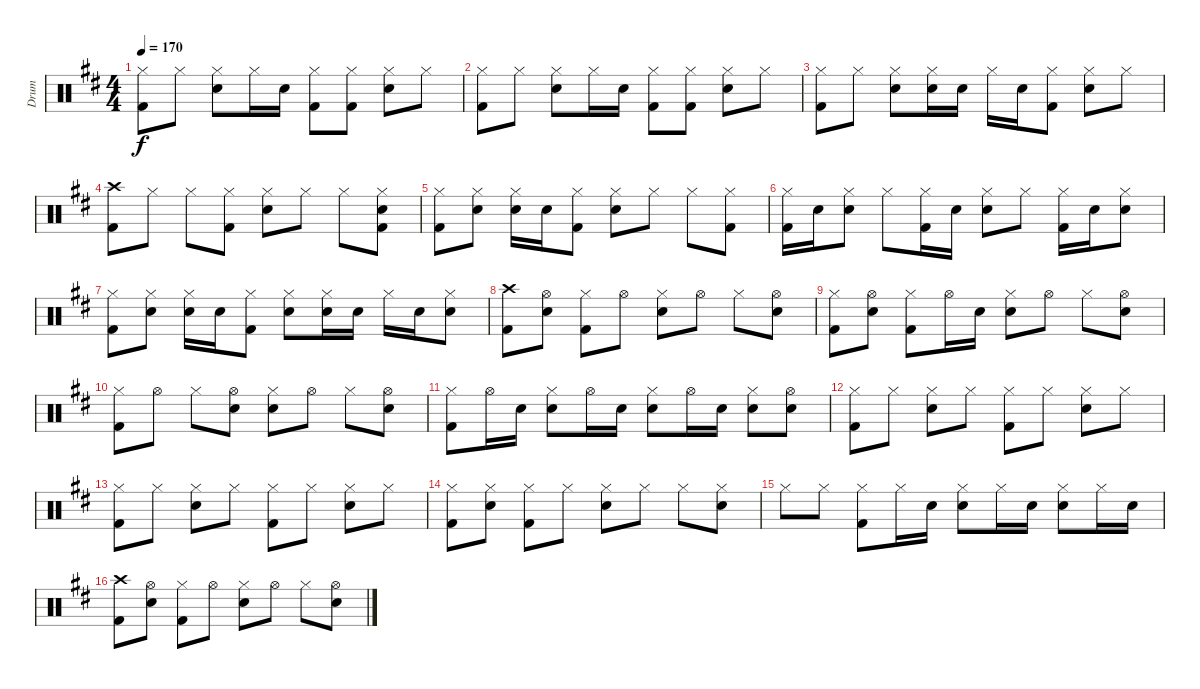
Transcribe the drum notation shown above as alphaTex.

\track ("Drum" "Drum") {instrument percussion}
\staff {score}
\articulation defaults
\ts (4 4)
\tempo 170
\clef neutral
\ks d
("Hi-Hat (closed)" "Kick (hit) 2").8{dy f} "Hi-Hat (closed)".8 ("Hi-Hat (closed)" "Electric Snare (hit)").8 "Hi-Hat (closed)".16 "Electric Snare (hit)".16 ("Hi-Hat (closed)" "Kick (hit) 2").8 ("Hi-Hat (closed)" "Kick (hit) 2").8 ("Hi-Hat (closed)" "Electric Snare (hit)").8 "Hi-Hat (closed)".8 |
("Hi-Hat (closed)" "Kick (hit) 2").8 "Hi-Hat (closed)".8 ("Hi-Hat (closed)" "Electric Snare (hit)").8 "Hi-Hat (closed)".16 "Electric Snare (hit)".16 ("Hi-Hat (closed)" "Kick (hit) 2").8 ("Hi-Hat (closed)" "Kick (hit) 2").8 ("Hi-Hat (closed)" "Electric Snare (hit)").8 "Hi-Hat (closed)".8 |
("Hi-Hat (closed)" "Kick (hit) 2").8 "Hi-Hat (closed)".8 ("Hi-Hat (closed)" "Electric Snare (hit)").8 ("Hi-Hat (closed)" "Electric Snare (hit)").16 "Electric Snare (hit)".16 "Hi-Hat (closed)".16 "Electric Snare (hit)".16 ("Hi-Hat (closed)" "Kick (hit) 2").8 ("Hi-Hat (closed)" "Electric Snare (hit)").8 "Hi-Hat (closed)".8 |
("Crash high (hit)" "Kick (hit) 2").8 "Hi-Hat (closed)".8 "Hi-Hat (closed)".8 ("Hi-Hat (closed)" "Kick (hit) 2").8 ("Hi-Hat (closed)" "Electric Snare (hit)").8 "Hi-Hat (closed)".8 "Hi-Hat (closed)".8 ("Hi-Hat (closed)" "Electric Snare (hit)" "Kick (hit) 2").8 |
("Hi-Hat (closed)" "Kick (hit) 2").8 ("Hi-Hat (closed)" "Electric Snare (hit)").8 ("Hi-Hat (closed)" "Electric Snare (hit)").16 "Electric Snare (hit)".16 ("Hi-Hat (closed)" "Kick (hit) 2").8 ("Hi-Hat (closed)" "Electric Snare (hit)").8 "Hi-Hat (closed)".8 "Hi-Hat (closed)".8 ("Hi-Hat (closed)" "Kick (hit) 2").8 |
("Hi-Hat (closed)" "Kick (hit) 2").16 "Electric Snare (hit)".16 ("Hi-Hat (closed)" "Electric Snare (hit)").8 "Hi-Hat (closed)".8 ("Hi-Hat (closed)" "Kick (hit) 2").16 "Electric Snare (hit)".16 ("Hi-Hat (closed)" "Electric Snare (hit)").8 "Hi-Hat (closed)".8 ("Hi-Hat (closed)" "Kick (hit) 2").16 "Electric Snare (hit)".16 ("Hi-Hat (closed)" "Electric Snare (hit)").8 |
("Hi-Hat (closed)" "Kick (hit) 2").8 ("Hi-Hat (closed)" "Electric Snare (hit)").8 ("Hi-Hat (closed)" "Electric Snare (hit)").16 "Electric Snare (hit)".16 ("Hi-Hat (closed)" "Kick (hit) 2").8 ("Hi-Hat (closed)" "Electric Snare (hit)").8 ("Hi-Hat (closed)" "Electric Snare (hit)").16 "Electric Snare (hit)".16 "Hi-Hat (closed)".16 "Electric Snare (hit)".16 ("Hi-Hat (closed)" "Electric Snare (hit)").8 |
("Crash high (hit)" "Kick (hit) 2").8 ("Hi-Hat (open)" "Electric Snare (hit)").8 ("Hi-Hat (closed)" "Kick (hit) 2").8 "Hi-Hat (open)".8 ("Hi-Hat (closed)" "Electric Snare (hit)").8 "Hi-Hat (open)".8 "Hi-Hat (closed)".8 ("Hi-Hat (open)" "Electric Snare (hit)").8 |
("Hi-Hat (closed)" "Kick (hit) 2").8 ("Hi-Hat (open)" "Electric Snare (hit)").8 ("Hi-Hat (closed)" "Kick (hit) 2").8 "Hi-Hat (open)".16 "Electric Snare (hit)".16 ("Hi-Hat (closed)" "Electric Snare (hit)").8 "Hi-Hat (open)".8 "Hi-Hat (closed)".8 ("Hi-Hat (open)" "Electric Snare (hit)").8 |
("Hi-Hat (closed)" "Kick (hit) 2").8 "Hi-Hat (open)".8 "Hi-Hat (closed)".8 ("Hi-Hat (open)" "Electric Snare (hit)").8 ("Hi-Hat (closed)" "Electric Snare (hit)").8 "Hi-Hat (open)".8 "Hi-Hat (closed)".8 ("Hi-Hat (open)" "Electric Snare (hit)").8 |
("Hi-Hat (closed)" "Kick (hit) 2").8 "Hi-Hat (open)".16 "Electric Snare (hit)".16 ("Hi-Hat (closed)" "Electric Snare (hit)").8 "Hi-Hat (open)".16 "Electric Snare (hit)".16 ("Hi-Hat (closed)" "Electric Snare (hit)").8 "Hi-Hat (open)".16 "Electric Snare (hit)".16 ("Hi-Hat (closed)" "Electric Snare (hit)").8 ("Hi-Hat (open)" "Electric Snare (hit)").8 |
("Hi-Hat (closed)" "Kick (hit) 2").8 "Hi-Hat (closed)".8 ("Hi-Hat (closed)" "Electric Snare (hit)").8 "Hi-Hat (closed)".8 ("Hi-Hat (closed)" "Kick (hit) 2").8 "Hi-Hat (closed)".8 ("Hi-Hat (closed)" "Electric Snare (hit)").8 "Hi-Hat (closed)".8 |
("Hi-Hat (closed)" "Kick (hit) 2").8 "Hi-Hat (closed)".8 ("Hi-Hat (closed)" "Electric Snare (hit)").8 "Hi-Hat (closed)".8 ("Hi-Hat (closed)" "Kick (hit) 2").8 "Hi-Hat (closed)".8 ("Hi-Hat (closed)" "Electric Snare (hit)").8 "Hi-Hat (closed)".8 |
("Hi-Hat (closed)" "Kick (hit) 2").8 ("Hi-Hat (closed)" "Electric Snare (hit)").8 ("Hi-Hat (closed)" "Kick (hit) 2").8 "Hi-Hat (closed)".8 ("Hi-Hat (closed)" "Electric Snare (hit)").8 "Hi-Hat (closed)".8 "Hi-Hat (closed)".8 ("Hi-Hat (closed)" "Electric Snare (hit)").8 |
"Hi-Hat (closed)".8 "Hi-Hat (closed)".8 ("Hi-Hat (closed)" "Kick (hit) 2").8 "Hi-Hat (closed)".16 "Electric Snare (hit)".16 ("Hi-Hat (closed)" "Electric Snare (hit)").8 "Hi-Hat (closed)".16 "Electric Snare (hit)".16 ("Hi-Hat (closed)" "Electric Snare (hit)").8 "Hi-Hat (closed)".16 "Electric Snare (hit)".16 |
("Crash high (hit)" "Kick (hit) 2").8 ("Hi-Hat (open)" "Electric Snare (hit)").8 ("Hi-Hat (closed)" "Kick (hit) 2").8 "Hi-Hat (open)".8 ("Hi-Hat (closed)" "Electric Snare (hit)").8 "Hi-Hat (open)".8 "Hi-Hat (closed)".8 ("Hi-Hat (open)" "Electric Snare (hit)").8
